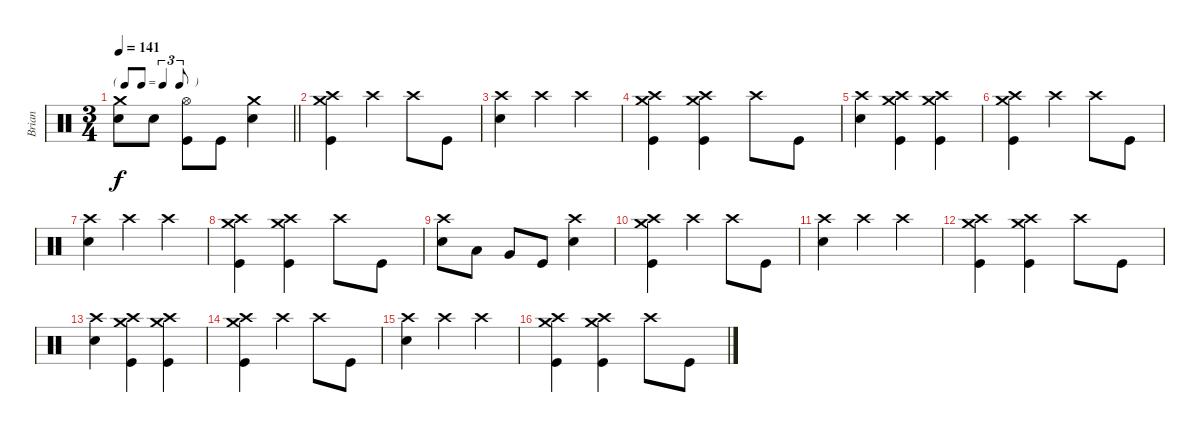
\track ("Brian" "Brian") {instrument percussion}
\staff {score}
\articulation defaults
\ts (3 4)
\tf triplet8th
\tempo 141
\clef neutral
\barLineRight lightlight
\ks c
("Crash medium (hit)" "Electric Snare (hit)").8{dy f} "Electric Snare (hit)".8 ("Hi-Hat (open)" "Kick (hit)").8 "Kick (hit)".8 ("Crash medium (hit)" "Electric Snare (hit)").4 |
("Crash medium (hit)" "Crash high (hit)" "Kick (hit)").4 "Crash high (hit)".4 "Crash high (hit)".8 "Kick (hit)".8 |
("Crash high (hit)" "Electric Snare (hit)").4 "Crash high (hit)".4 "Crash high (hit)".4 |
("Crash medium (hit)" "Crash high (hit)" "Kick (hit)").4 ("Crash medium (hit)" "Crash high (hit)" "Kick (hit)").4 "Crash high (hit)".8 "Kick (hit)".8 |
("Crash high (hit)" "Electric Snare (hit)").4 ("Crash medium (hit)" "Crash high (hit)" "Kick (hit)").4 ("Crash medium (hit)" "Crash high (hit)" "Kick (hit)").4 |
("Crash medium (hit)" "Crash high (hit)" "Kick (hit)").4 "Crash high (hit)".4 "Crash high (hit)".8 "Kick (hit)".8 |
("Crash high (hit)" "Electric Snare (hit)").4 "Crash high (hit)".4 "Crash high (hit)".4 |
("Crash medium (hit)" "Crash high (hit)" "Kick (hit)").4 ("Crash medium (hit)" "Crash high (hit)" "Kick (hit)").4 "Crash high (hit)".8 "Kick (hit)".8 |
("Crash high (hit)" "Electric Snare (hit)").8 "Low Tom (hit)".8 "Very Low Tom (hit)".8 "Kick (hit)".8 ("Crash high (hit)" "Electric Snare (hit)").4 |
("Crash medium (hit)" "Crash high (hit)" "Kick (hit)").4 "Crash high (hit)".4 "Crash high (hit)".8 "Kick (hit)".8 |
("Crash high (hit)" "Electric Snare (hit)").4 "Crash high (hit)".4 "Crash high (hit)".4 |
("Crash medium (hit)" "Crash high (hit)" "Kick (hit)").4 ("Crash medium (hit)" "Crash high (hit)" "Kick (hit)").4 "Crash high (hit)".8 "Kick (hit)".8 |
("Crash high (hit)" "Electric Snare (hit)").4 ("Crash medium (hit)" "Crash high (hit)" "Kick (hit)").4 ("Crash medium (hit)" "Crash high (hit)" "Kick (hit)").4 |
("Crash medium (hit)" "Crash high (hit)" "Kick (hit)").4 "Crash high (hit)".4 "Crash high (hit)".8 "Kick (hit)".8 |
("Crash high (hit)" "Electric Snare (hit)").4 "Crash high (hit)".4 "Crash high (hit)".4 |
("Crash medium (hit)" "Crash high (hit)" "Kick (hit)").4 ("Crash medium (hit)" "Crash high (hit)" "Kick (hit)").4 "Crash high (hit)".8 "Kick (hit)".8
